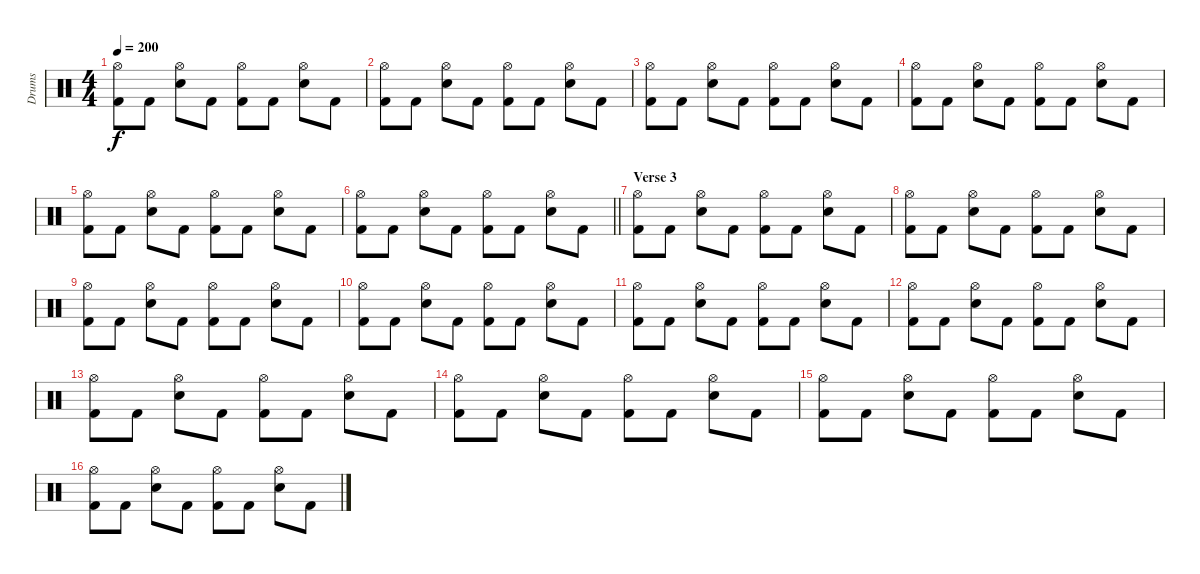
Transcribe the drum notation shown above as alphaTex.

\track ("Drums" "Drums") {instrument percussion}
\staff {score}
\articulation defaults
\ts (4 4)
\tempo 200
\clef neutral
\ks c
("Kick (hit) 2" "Hi-Hat (open)").8{dy f} "Kick (hit) 2".8 ("Snare (hit) 2" "Hi-Hat (open)").8 "Kick (hit) 2".8 ("Kick (hit) 2" "Hi-Hat (open)").8 "Kick (hit) 2".8 ("Snare (hit) 2" "Hi-Hat (open)").8 "Kick (hit) 2".8 |
("Kick (hit) 2" "Hi-Hat (open)").8 "Kick (hit) 2".8 ("Snare (hit) 2" "Hi-Hat (open)").8 "Kick (hit) 2".8 ("Kick (hit) 2" "Hi-Hat (open)").8 "Kick (hit) 2".8 ("Snare (hit) 2" "Hi-Hat (open)").8 "Kick (hit) 2".8 |
("Kick (hit) 2" "Hi-Hat (open)").8 "Kick (hit) 2".8 ("Snare (hit) 2" "Hi-Hat (open)").8 "Kick (hit) 2".8 ("Kick (hit) 2" "Hi-Hat (open)").8 "Kick (hit) 2".8 ("Snare (hit) 2" "Hi-Hat (open)").8 "Kick (hit) 2".8 |
("Kick (hit) 2" "Hi-Hat (open)").8 "Kick (hit) 2".8 ("Snare (hit) 2" "Hi-Hat (open)").8 "Kick (hit) 2".8 ("Kick (hit) 2" "Hi-Hat (open)").8 "Kick (hit) 2".8 ("Snare (hit) 2" "Hi-Hat (open)").8 "Kick (hit) 2".8 |
("Kick (hit) 2" "Hi-Hat (open)").8 "Kick (hit) 2".8 ("Snare (hit) 2" "Hi-Hat (open)").8 "Kick (hit) 2".8 ("Kick (hit) 2" "Hi-Hat (open)").8 "Kick (hit) 2".8 ("Snare (hit) 2" "Hi-Hat (open)").8 "Kick (hit) 2".8 |
\barLineRight lightlight
("Kick (hit) 2" "Hi-Hat (open)").8 "Kick (hit) 2".8 ("Snare (hit) 2" "Hi-Hat (open)").8 "Kick (hit) 2".8 ("Kick (hit) 2" "Hi-Hat (open)").8 "Kick (hit) 2".8 ("Snare (hit) 2" "Hi-Hat (open)").8 "Kick (hit) 2".8 |
\section ("" "Verse 3")
("Kick (hit) 2" "Hi-Hat (open)").8 "Kick (hit) 2".8 ("Snare (hit) 2" "Hi-Hat (open)").8 "Kick (hit) 2".8 ("Kick (hit) 2" "Hi-Hat (open)").8 "Kick (hit) 2".8 ("Snare (hit) 2" "Hi-Hat (open)").8 "Kick (hit) 2".8 |
("Kick (hit) 2" "Hi-Hat (open)").8 "Kick (hit) 2".8 ("Snare (hit) 2" "Hi-Hat (open)").8 "Kick (hit) 2".8 ("Kick (hit) 2" "Hi-Hat (open)").8 "Kick (hit) 2".8 ("Snare (hit) 2" "Hi-Hat (open)").8 "Kick (hit) 2".8 |
("Kick (hit) 2" "Hi-Hat (open)").8 "Kick (hit) 2".8 ("Snare (hit) 2" "Hi-Hat (open)").8 "Kick (hit) 2".8 ("Kick (hit) 2" "Hi-Hat (open)").8 "Kick (hit) 2".8 ("Snare (hit) 2" "Hi-Hat (open)").8 "Kick (hit) 2".8 |
("Kick (hit) 2" "Hi-Hat (open)").8 "Kick (hit) 2".8 ("Snare (hit) 2" "Hi-Hat (open)").8 "Kick (hit) 2".8 ("Kick (hit) 2" "Hi-Hat (open)").8 "Kick (hit) 2".8 ("Snare (hit) 2" "Hi-Hat (open)").8 "Kick (hit) 2".8 |
("Kick (hit) 2" "Hi-Hat (open)").8 "Kick (hit) 2".8 ("Snare (hit) 2" "Hi-Hat (open)").8 "Kick (hit) 2".8 ("Kick (hit) 2" "Hi-Hat (open)").8 "Kick (hit) 2".8 ("Snare (hit) 2" "Hi-Hat (open)").8 "Kick (hit) 2".8 |
("Kick (hit) 2" "Hi-Hat (open)").8 "Kick (hit) 2".8 ("Snare (hit) 2" "Hi-Hat (open)").8 "Kick (hit) 2".8 ("Kick (hit) 2" "Hi-Hat (open)").8 "Kick (hit) 2".8 ("Snare (hit) 2" "Hi-Hat (open)").8 "Kick (hit) 2".8 |
("Kick (hit) 2" "Hi-Hat (open)").8 "Kick (hit) 2".8 ("Snare (hit) 2" "Hi-Hat (open)").8 "Kick (hit) 2".8 ("Kick (hit) 2" "Hi-Hat (open)").8 "Kick (hit) 2".8 ("Snare (hit) 2" "Hi-Hat (open)").8 "Kick (hit) 2".8 |
("Kick (hit) 2" "Hi-Hat (open)").8 "Kick (hit) 2".8 ("Snare (hit) 2" "Hi-Hat (open)").8 "Kick (hit) 2".8 ("Kick (hit) 2" "Hi-Hat (open)").8 "Kick (hit) 2".8 ("Snare (hit) 2" "Hi-Hat (open)").8 "Kick (hit) 2".8 |
("Kick (hit) 2" "Hi-Hat (open)").8 "Kick (hit) 2".8 ("Snare (hit) 2" "Hi-Hat (open)").8 "Kick (hit) 2".8 ("Kick (hit) 2" "Hi-Hat (open)").8 "Kick (hit) 2".8 ("Snare (hit) 2" "Hi-Hat (open)").8 "Kick (hit) 2".8 |
("Kick (hit) 2" "Hi-Hat (open)").8 "Kick (hit) 2".8 ("Snare (hit) 2" "Hi-Hat (open)").8 "Kick (hit) 2".8 ("Kick (hit) 2" "Hi-Hat (open)").8 "Kick (hit) 2".8 ("Snare (hit) 2" "Hi-Hat (open)").8 "Kick (hit) 2".8
